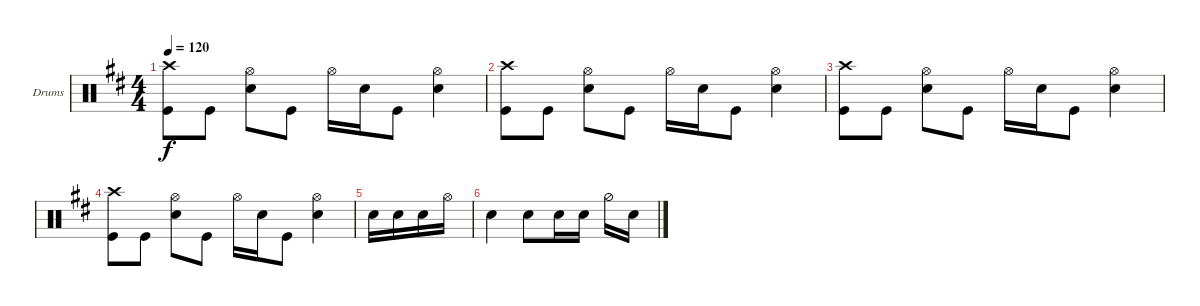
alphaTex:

\defaultSystemsLayout 4
\bracketExtendMode groupsimilarinstruments
\firstSystemTrackNameOrientation horizontal
\otherSystemsTrackNameOrientation horizontal
\track ("Drumkit" "Drums") {instrument percussion}
\staff {score}
\articulation defaults
\ts (4 4)
\tempo 120
\clef neutral
\scale
0.949559
\ks d
("Crash high (hit)" "Kick (hit)").8{dy f} "Kick (hit)".8 ("Hi-Hat (open)" "Snare (hit) 2").8 "Kick (hit)".8 "Hi-Hat (open)".16 "Snare (hit) 2".16 "Kick (hit)".8 ("Hi-Hat (open)" "Snare (hit) 2").4 |
\scale
0.949559 ("Crash high (hit)" "Kick (hit)").8 "Kick (hit)".8 ("Hi-Hat (open)" "Snare (hit) 2").8 "Kick (hit)".8 "Hi-Hat (open)".16 "Snare (hit) 2".16 "Kick (hit)".8 ("Hi-Hat (open)" "Snare (hit) 2").4 |
\scale
1.10088 ("Crash high (hit)" "Kick (hit)").8 "Kick (hit)".8 ("Hi-Hat (open)" "Snare (hit) 2").8 "Kick (hit)".8 "Hi-Hat (open)".16 "Snare (hit) 2".16 "Kick (hit)".8 ("Hi-Hat (open)" "Snare (hit) 2").4 |
\scale
0.949559 ("Crash high (hit)" "Kick (hit)").8 "Kick (hit)".8 ("Hi-Hat (open)" "Snare (hit) 2").8 "Kick (hit)".8 "Hi-Hat (open)".16 "Snare (hit) 2".16 "Kick (hit)".8 ("Hi-Hat (open)" "Snare (hit) 2").4 |
\scale
0.949559 "Snare (hit) 2".16 "Snare (hit) 2".16 "Snare (hit) 2".16 "Hi-Hat (open)".16 |
"Snare (hit) 2".4 "Snare (hit) 2".8 "Snare (hit) 2".16 "Snare (hit) 2".16 "Hi-Hat (half)".16 "Snare (hit) 2".16
